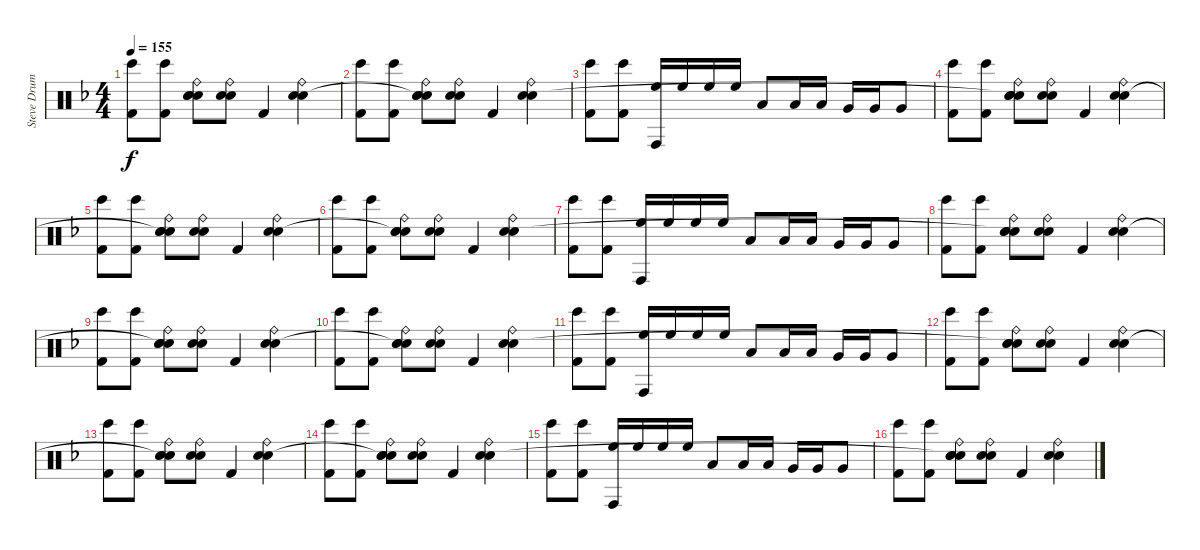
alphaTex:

\track ("Steve Drums" "Steve Drum") {instrument percussion}
\staff {score}
\articulation defaults
\ts (4 4)
\tempo 155
\clef neutral
\ks f
("Bongo High (hit)" "Kick (hit) 2").8{dy f} ("Bongo High (hit)" "Kick (hit) 2").8 ("Ride (bell)" "Snare (hit) 2" "Snare (hit)"{t} "Electric Snare (hit)").8 ("Ride (bell)" "Snare (hit) 2" "Electric Snare (hit)").8 "Kick (hit) 2".4 ("Ride (bell)" "Snare (hit) 2" "Electric Snare (hit)").4 |
("Bongo High (hit)" "Kick (hit) 2").8 ("Bongo High (hit)" "Kick (hit) 2").8 ("Ride (bell)" "Snare (hit) 2" "Snare (hit)"{t} "Electric Snare (hit)").8 ("Ride (bell)" "Snare (hit) 2" "Electric Snare (hit)").8 "Kick (hit) 2".4 ("Ride (bell)" "Snare (hit) 2" "Electric Snare (hit)").4 |
("Bongo High (hit)" "Kick (hit) 2").8 ("Bongo High (hit)" "Kick (hit) 2").8 ("Conga high (hit)" "High Floor Tom (hit)").16 "High Floor Tom (hit)".16 "High Floor Tom (hit)".16 "High Floor Tom (hit)".16 "Low Tom (hit)".8 "Low Tom (hit)".16 "Low Tom (hit)".16 "Very Low Tom (hit)".16 "Very Low Tom (hit)".16 "Very Low Tom (hit)".8 |
("Bongo High (hit)" "Kick (hit) 2").8 ("Bongo High (hit)" "Kick (hit) 2").8 ("Ride (bell)" "Snare (hit) 2" "Snare (hit)"{t} "Electric Snare (hit)").8 ("Ride (bell)" "Snare (hit) 2" "Electric Snare (hit)").8 "Kick (hit) 2".4 ("Ride (bell)" "Snare (hit) 2" "Electric Snare (hit)").4 |
("Bongo High (hit)" "Kick (hit) 2").8 ("Bongo High (hit)" "Kick (hit) 2").8 ("Ride (bell)" "Snare (hit) 2" "Snare (hit)"{t} "Electric Snare (hit)").8 ("Ride (bell)" "Snare (hit) 2" "Electric Snare (hit)").8 "Kick (hit) 2".4 ("Ride (bell)" "Snare (hit) 2" "Electric Snare (hit)").4 |
("Bongo High (hit)" "Kick (hit) 2").8 ("Bongo High (hit)" "Kick (hit) 2").8 ("Ride (bell)" "Snare (hit) 2" "Snare (hit)"{t} "Electric Snare (hit)").8 ("Ride (bell)" "Snare (hit) 2" "Electric Snare (hit)").8 "Kick (hit) 2".4 ("Ride (bell)" "Snare (hit) 2" "Electric Snare (hit)").4 |
("Bongo High (hit)" "Kick (hit) 2").8 ("Bongo High (hit)" "Kick (hit) 2").8 ("Conga high (hit)" "High Floor Tom (hit)").16 "High Floor Tom (hit)".16 "High Floor Tom (hit)".16 "High Floor Tom (hit)".16 "Low Tom (hit)".8 "Low Tom (hit)".16 "Low Tom (hit)".16 "Very Low Tom (hit)".16 "Very Low Tom (hit)".16 "Very Low Tom (hit)".8 |
("Bongo High (hit)" "Kick (hit) 2").8 ("Bongo High (hit)" "Kick (hit) 2").8 ("Ride (bell)" "Snare (hit) 2" "Snare (hit)"{t} "Electric Snare (hit)").8 ("Ride (bell)" "Snare (hit) 2" "Electric Snare (hit)").8 "Kick (hit) 2".4 ("Ride (bell)" "Snare (hit) 2" "Electric Snare (hit)").4 |
("Bongo High (hit)" "Kick (hit) 2").8 ("Bongo High (hit)" "Kick (hit) 2").8 ("Ride (bell)" "Snare (hit) 2" "Snare (hit)"{t} "Electric Snare (hit)").8 ("Ride (bell)" "Snare (hit) 2" "Electric Snare (hit)").8 "Kick (hit) 2".4 ("Ride (bell)" "Snare (hit) 2" "Electric Snare (hit)").4 |
("Bongo High (hit)" "Kick (hit) 2").8 ("Bongo High (hit)" "Kick (hit) 2").8 ("Ride (bell)" "Snare (hit) 2" "Snare (hit)"{t} "Electric Snare (hit)").8 ("Ride (bell)" "Snare (hit) 2" "Electric Snare (hit)").8 "Kick (hit) 2".4 ("Ride (bell)" "Snare (hit) 2" "Electric Snare (hit)").4 |
("Bongo High (hit)" "Kick (hit) 2").8 ("Bongo High (hit)" "Kick (hit) 2").8 ("Conga high (hit)" "High Floor Tom (hit)").16 "High Floor Tom (hit)".16 "High Floor Tom (hit)".16 "High Floor Tom (hit)".16 "Low Tom (hit)".8 "Low Tom (hit)".16 "Low Tom (hit)".16 "Very Low Tom (hit)".16 "Very Low Tom (hit)".16 "Very Low Tom (hit)".8 |
("Bongo High (hit)" "Kick (hit) 2").8 ("Bongo High (hit)" "Kick (hit) 2").8 ("Ride (bell)" "Snare (hit) 2" "Snare (hit)"{t} "Electric Snare (hit)").8 ("Ride (bell)" "Snare (hit) 2" "Electric Snare (hit)").8 "Kick (hit) 2".4 ("Ride (bell)" "Snare (hit) 2" "Electric Snare (hit)").4 |
("Bongo High (hit)" "Kick (hit) 2").8 ("Bongo High (hit)" "Kick (hit) 2").8 ("Ride (bell)" "Snare (hit) 2" "Snare (hit)"{t} "Electric Snare (hit)").8 ("Ride (bell)" "Snare (hit) 2" "Electric Snare (hit)").8 "Kick (hit) 2".4 ("Ride (bell)" "Snare (hit) 2" "Electric Snare (hit)").4 |
("Bongo High (hit)" "Kick (hit) 2").8 ("Bongo High (hit)" "Kick (hit) 2").8 ("Ride (bell)" "Snare (hit) 2" "Snare (hit)"{t} "Electric Snare (hit)").8 ("Ride (bell)" "Snare (hit) 2" "Electric Snare (hit)").8 "Kick (hit) 2".4 ("Ride (bell)" "Snare (hit) 2" "Electric Snare (hit)").4 |
("Bongo High (hit)" "Kick (hit) 2").8 ("Bongo High (hit)" "Kick (hit) 2").8 ("Conga high (hit)" "High Floor Tom (hit)").16 "High Floor Tom (hit)".16 "High Floor Tom (hit)".16 "High Floor Tom (hit)".16 "Low Tom (hit)".8 "Low Tom (hit)".16 "Low Tom (hit)".16 "Very Low Tom (hit)".16 "Very Low Tom (hit)".16 "Very Low Tom (hit)".8 |
("Bongo High (hit)" "Kick (hit) 2").8 ("Bongo High (hit)" "Kick (hit) 2").8 ("Ride (bell)" "Snare (hit) 2" "Snare (hit)"{t} "Electric Snare (hit)").8 ("Ride (bell)" "Snare (hit) 2" "Electric Snare (hit)").8 "Kick (hit) 2".4 ("Ride (bell)" "Snare (hit) 2" "Electric Snare (hit)").4
